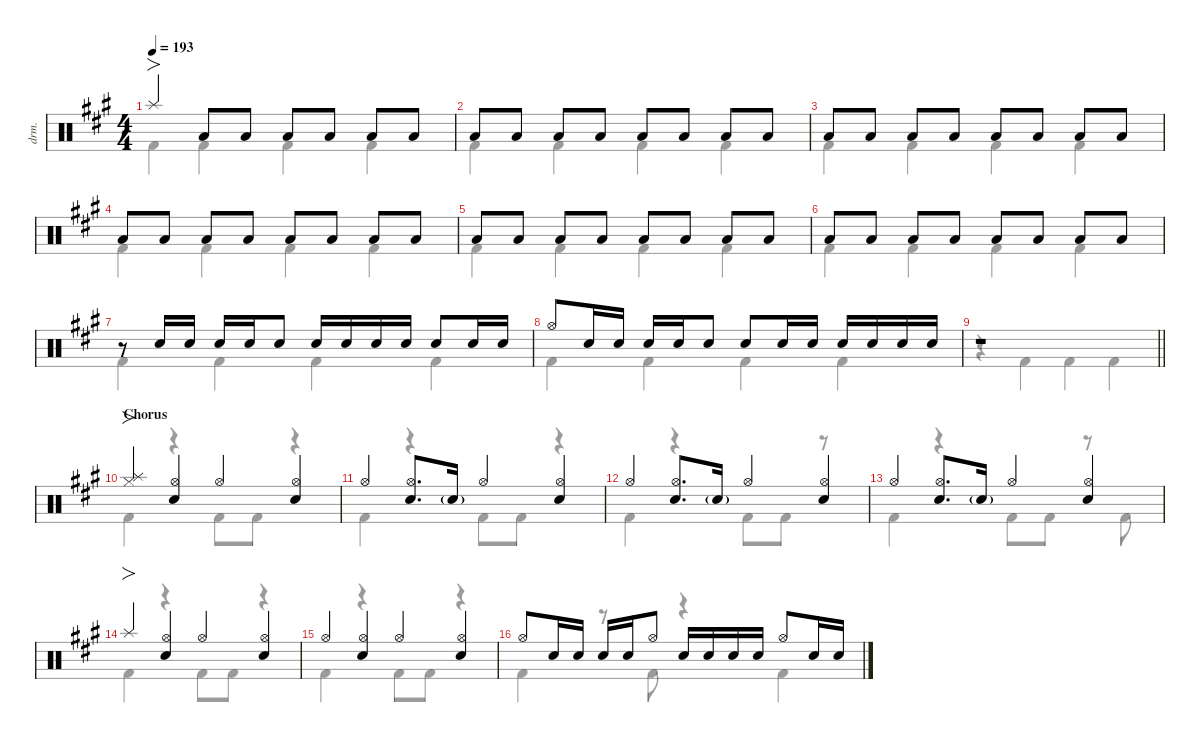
\defaultSystemsLayout 4
\hideDynamics
\bracketExtendMode nobrackets
\otherSystemsTrackNameOrientation horizontal
\track ("伊地知虹夏" "drm.") {instrument percussion}
\staff {score}
\articulation defaults
\voice
\ts (4 4)
\tempo 193
\clef neutral
\ks a "Splash (hit)"{acc forcenatural}.4{fo dy mf beam Up} "Low Tom (hit)"{acc forcenatural}.8{beam Up} "Low Tom (hit)"{acc forcenatural}.8{beam Up} "Low Tom (hit)"{acc forcenatural}.8{beam Up} "Low Tom (hit)"{acc forcenatural}.8{beam Up} "Low Tom (hit)"{acc forcenatural}.8{beam Up} "Low Tom (hit)"{acc forcenatural}.8{beam Up}
|
"Low Tom (hit)"{acc forcenatural}.8{beam Up} "Low Tom (hit)"{acc forcenatural}.8{beam Up} "Low Tom (hit)"{acc forcenatural}.8{beam Up} "Low Tom (hit)"{acc forcenatural}.8{beam Up} "Low Tom (hit)"{acc forcenatural}.8{beam Up} "Low Tom (hit)"{acc forcenatural}.8{beam Up} "Low Tom (hit)"{acc forcenatural}.8{beam Up} "Low Tom (hit)"{acc forcenatural}.8{beam Up} |
"Low Tom (hit)"{acc forcenatural}.8{beam Up} "Low Tom (hit)"{acc forcenatural}.8{beam Up} "Low Tom (hit)"{acc forcenatural}.8{beam Up} "Low Tom (hit)"{acc forcenatural}.8{beam Up} "Low Tom (hit)"{acc forcenatural}.8{beam Up} "Low Tom (hit)"{acc forcenatural}.8{beam Up} "Low Tom (hit)"{acc forcenatural}.8{beam Up} "Low Tom (hit)"{acc forcenatural}.8{beam Up} |
"Low Tom (hit)"{acc forcenatural}.8{beam Up} "Low Tom (hit)"{acc forcenatural}.8{beam Up} "Low Tom (hit)"{acc forcenatural}.8{beam Up} "Low Tom (hit)"{acc forcenatural}.8{beam Up} "Low Tom (hit)"{acc forcenatural}.8{beam Up} "Low Tom (hit)"{acc forcenatural}.8{beam Up} "Low Tom (hit)"{acc forcenatural}.8{beam Up} "Low Tom (hit)"{acc forcenatural}.8{beam Up} |
"Low Tom (hit)"{acc forcenatural}.8{beam Up} "Low Tom (hit)"{acc forcenatural}.8{beam Up} "Low Tom (hit)"{acc forcenatural}.8{beam Up} "Low Tom (hit)"{acc forcenatural}.8{beam Up} "Low Tom (hit)"{acc forcenatural}.8{beam Up} "Low Tom (hit)"{acc forcenatural}.8{beam Up} "Low Tom (hit)"{acc forcenatural}.8{beam Up} "Low Tom (hit)"{acc forcenatural}.8{beam Up} |
"Low Tom (hit)"{acc forcenatural}.8{beam Up} "Low Tom (hit)"{acc forcenatural}.8{beam Up} "Low Tom (hit)"{acc forcenatural}.8{beam Up} "Low Tom (hit)"{acc forcenatural}.8{beam Up} "Low Tom (hit)"{acc forcenatural}.8{beam Up} "Low Tom (hit)"{acc forcenatural}.8{beam Up} "Low Tom (hit)"{acc forcenatural}.8{beam Up} "Low Tom (hit)"{acc forcenatural}.8{beam Up} |
r.8{beam Up} "Snare (hit) 2"{acc forcenatural}.16{beam Up} "Snare (hit) 2"{acc forcenatural}.16{beam Up} "Snare (hit) 2"{acc forcenatural}.16{beam Up} "Snare (hit) 2"{acc forcenatural}.16{beam Up} "Snare (hit) 2"{acc forcenatural}.8{beam Up} "Snare (hit) 2"{acc forcenatural}.16{beam Up} "Snare (hit) 2"{acc forcenatural}.16{beam Up} "Snare (hit) 2"{acc forcenatural}.16{beam Up} "Snare (hit) 2"{acc forcenatural}.16{beam Up} "Snare (hit) 2"{acc forcenatural}.8{beam Up} "Snare (hit) 2"{acc forcenatural}.16{beam Up} "Snare (hit) 2"{acc forcenatural}.16{beam Up} |
"Hi-Hat (open)"{acc forcenatural}.8{beam Up} "Snare (hit) 2"{acc forcenatural}.16{beam Up} "Snare (hit) 2"{acc forcenatural}.16{beam Up} "Snare (hit) 2"{acc forcenatural}.16{beam Up} "Snare (hit) 2"{acc forcenatural}.16{beam Up} "Snare (hit) 2"{acc forcenatural}.8{beam Up} "Snare (hit) 2"{acc forcenatural}.8{beam Up} "Snare (hit) 2"{acc forcenatural}.16{beam Up} "Snare (hit) 2"{acc forcenatural}.16{beam Up} "Snare (hit) 2"{acc forcenatural}.16{beam Up} "Snare (hit) 2"{acc forcenatural}.16{beam Up} "Snare (hit) 2"{acc forcenatural}.16{beam Up} "Snare (hit) 2"{acc forcenatural}.16{beam Up} |
\barLineRight lightlight
r.1{beam Up} |
\section ("" "Chorus")
("Hi-Hat (closed)"{acc forcenatural} "Splash (hit)"{acc forcenatural}).4{fo beam Up} ("Hi-Hat (open)"{acc forcenatural} "Snare (hit) 2"{acc forcenatural}).4{beam Up} "Hi-Hat (open)"{acc forcenatural}.4{beam Up} ("Hi-Hat (open)"{acc forcenatural} "Snare (hit) 2"{acc forcenatural}).4{beam Up} |
"Hi-Hat (open)"{acc forcenatural}.4{beam Up} ("Hi-Hat (open)"{acc forcenatural} "Snare (hit) 2"{acc forcenatural}).8{d beam Up} "Snare (hit) 2"{g acc forcenatural}.16{beam Up} "Hi-Hat (open)"{acc forcenatural}.4{beam Up} ("Hi-Hat (open)"{acc forcenatural} "Snare (hit) 2"{acc forcenatural}).4{beam Up} |
"Hi-Hat (open)"{acc forcenatural}.4{beam Up} ("Hi-Hat (open)"{acc forcenatural} "Snare (hit) 2"{acc forcenatural}).8{d beam Up} "Snare (hit) 2"{g acc forcenatural}.16{beam Up} "Hi-Hat (open)"{acc forcenatural}.4{beam Up} ("Snare (hit) 2"{acc forcenatural} "Hi-Hat (open)"{acc forcenatural}).4{beam Up} |
"Hi-Hat (open)"{acc forcenatural}.4{beam Up} ("Hi-Hat (open)"{acc forcenatural} "Snare (hit) 2"{acc forcenatural}).8{d beam Up} "Snare (hit) 2"{g acc forcenatural}.16{beam Up} "Hi-Hat (open)"{acc forcenatural}.4{beam Up} ("Snare (hit) 2"{acc forcenatural} "Hi-Hat (open)"{acc forcenatural}).4{beam Up} |
"Splash (hit)"{acc forcenatural}.4{fo beam Up} ("Hi-Hat (open)"{acc forcenatural} "Snare (hit) 2"{acc forcenatural}).4{beam Up} "Hi-Hat (open)"{acc forcenatural}.4{beam Up} ("Hi-Hat (open)"{acc forcenatural} "Snare (hit) 2"{acc forcenatural}).4{beam Up} |
"Hi-Hat (open)"{acc forcenatural}.4{beam Up} ("Hi-Hat (open)"{acc forcenatural} "Snare (hit) 2"{acc forcenatural}).4{beam Up} "Hi-Hat (open)"{acc forcenatural}.4{beam Up} ("Hi-Hat (open)"{acc forcenatural} "Snare (hit) 2"{acc forcenatural}).4{beam Up} |
"Hi-Hat (open)"{acc forcenatural}.8{beam Up} "Snare (hit) 2"{acc forcenatural}.16{beam Up} "Snare (hit) 2"{acc forcenatural}.16{beam Up} "Snare (hit) 2"{acc forcenatural}.16{beam Up} "Snare (hit) 2"{acc forcenatural}.16{beam Up} "Hi-Hat (open)"{acc forcenatural}.8{beam Up} "Snare (hit) 2"{acc forcenatural}.16{beam Up} "Snare (hit) 2"{acc forcenatural}.16{beam Up} "Snare (hit) 2"{acc forcenatural}.16{beam Up} "Snare (hit) 2"{acc forcenatural}.16{beam Up} "Hi-Hat (open)"{acc forcenatural}.8{beam Up} "Snare (hit) 2"{acc forcenatural}.16{beam Up} "Snare (hit) 2"{acc forcenatural}.16{beam Up}
\voice
\clef neutral
\ottava regular
\simile none
\ks a "Kick (hit) 2"{acc forcenatural}.4{dy mf beam Down} "Kick (hit) 2"{acc forcenatural}.4{beam Down} "Kick (hit) 2"{acc forcenatural}.4{beam Down} "Kick (hit) 2"{acc forcenatural}.4{beam Down}
|
"Kick (hit) 2"{acc forcenatural}.4{beam Down} "Kick (hit) 2"{acc forcenatural}.4{beam Down} "Kick (hit) 2"{acc forcenatural}.4{beam Down} "Kick (hit) 2"{acc forcenatural}.4{beam Down} |
"Kick (hit) 2"{acc forcenatural}.4{beam Down} "Kick (hit) 2"{acc forcenatural}.4{beam Down} "Kick (hit) 2"{acc forcenatural}.4{beam Down} "Kick (hit) 2"{acc forcenatural}.4{beam Down} |
"Kick (hit) 2"{acc forcenatural}.4{beam Down} "Kick (hit) 2"{acc forcenatural}.4{beam Down} "Kick (hit) 2"{acc forcenatural}.4{beam Down} "Kick (hit) 2"{acc forcenatural}.4{beam Down} |
"Kick (hit) 2"{acc forcenatural}.4{beam Down} "Kick (hit) 2"{acc forcenatural}.4{beam Down} "Kick (hit) 2"{acc forcenatural}.4{beam Down} "Kick (hit) 2"{acc forcenatural}.4{beam Down} |
"Kick (hit) 2"{acc forcenatural}.4{beam Down} "Kick (hit) 2"{acc forcenatural}.4{beam Down} "Kick (hit) 2"{acc forcenatural}.4{beam Down} "Kick (hit) 2"{acc forcenatural}.4{beam Down} |
"Kick (hit) 2"{acc forcenatural}.4{beam Down} "Kick (hit) 2"{acc forcenatural}.4{beam Down} "Kick (hit) 2"{acc forcenatural}.4{beam Down} "Kick (hit) 2"{acc forcenatural}.4{beam Down} |
"Kick (hit) 2"{acc forcenatural}.4{beam Down} "Kick (hit) 2"{acc forcenatural}.4{beam Down} "Kick (hit) 2"{acc forcenatural}.4{beam Down} "Kick (hit) 2"{acc forcenatural}.4{beam Down} |
\barLineRight lightlight
r.4{beam Down} "Kick (hit) 2"{acc forcenatural}.4{beam Down} "Kick (hit) 2"{acc forcenatural}.4{beam Down} "Kick (hit) 2"{acc forcenatural}.4{beam Down} |
"Kick (hit) 2"{acc forcenatural}.4{beam Down} r.4{beam Down} "Kick (hit) 2"{acc forcenatural}.8{beam Down} "Kick (hit) 2"{acc forcenatural}.8{beam Down} r.4{beam Down} |
"Kick (hit) 2"{acc forcenatural}.4{beam Down} r.4{beam Down} "Kick (hit) 2"{acc forcenatural}.8{beam Down} "Kick (hit) 2"{acc forcenatural}.8{beam Down} r.4{beam Down} |
"Kick (hit) 2"{acc forcenatural}.4{beam Down} r.4{beam Down} "Kick (hit) 2"{acc forcenatural}.8{beam Down} "Kick (hit) 2"{acc forcenatural}.8{beam Down} r.8{beam Down} |
"Kick (hit) 2"{acc forcenatural}.4{beam Down} r.4{beam Down} "Kick (hit) 2"{acc forcenatural}.8{beam Down} "Kick (hit) 2"{acc forcenatural}.8{beam Down} r.8{beam Down} "Kick (hit) 2"{acc forcenatural}.8{beam Down} |
"Kick (hit) 2"{acc forcenatural}.4{beam Down} r.4{beam Down} "Kick (hit) 2"{acc forcenatural}.8{beam Down} "Kick (hit) 2"{acc forcenatural}.8{beam Down} r.4{beam Down} |
"Kick (hit) 2"{acc forcenatural}.4{beam Down} r.4{beam Down} "Kick (hit) 2"{acc forcenatural}.8{beam Down} "Kick (hit) 2"{acc forcenatural}.8{beam Down} r.4{beam Down} |
"Kick (hit) 2"{acc forcenatural}.4{beam Down} r.8{beam Down} "Kick (hit) 2"{acc forcenatural}.8{beam Down} r.4{beam Down} "Kick (hit) 2"{acc forcenatural}.4{beam Down}
